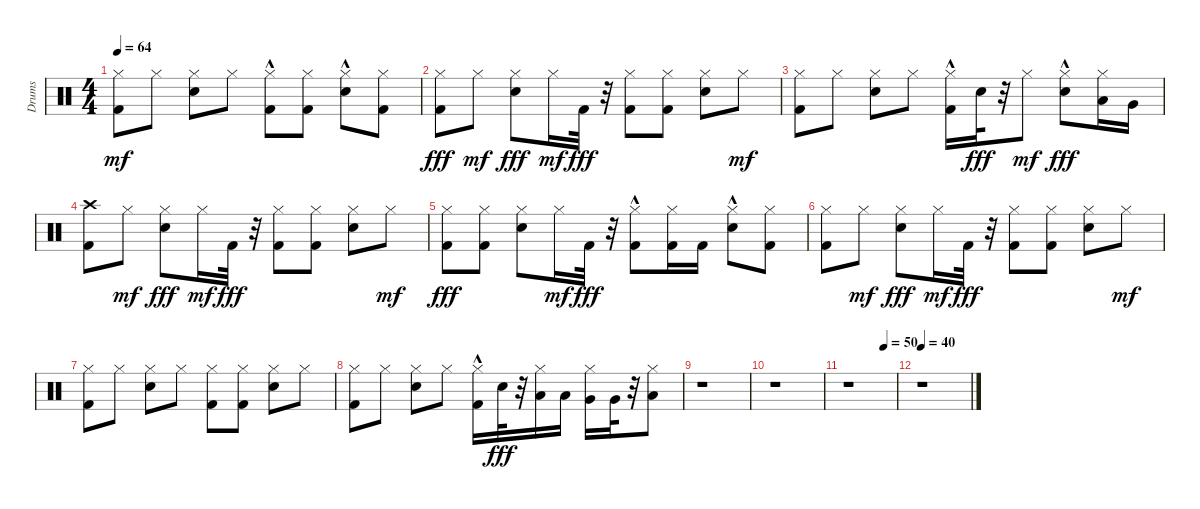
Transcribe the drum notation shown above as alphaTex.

\track ("Drums" "Drums") {instrument percussion}
\staff {score}
\articulation defaults
\ts (4 4)
\tempo 64
\clef neutral
\ks c
("Kick (hit) 2" "Hi-Hat (closed)").8{dy mf} "Hi-Hat (closed)".8 ("Snare (hit) 2" "Hi-Hat (closed)").8 "Hi-Hat (closed)".8 ("Kick (hit) 2"{hac} "Hi-Hat (closed)").8 ("Kick (hit) 2" "Hi-Hat (closed)").8 ("Snare (hit) 2"{hac} "Hi-Hat (closed)").8 ("Kick (hit) 2" "Hi-Hat (closed)").8 |
("Hi-Hat (closed)" "Kick (hit) 2").8{dy fff} "Hi-Hat (closed)".8{dy mf} ("Hi-Hat (closed)" "Snare (hit) 2").8{dy fff} "Hi-Hat (closed)".16{dy mf} "Kick (hit) 2".32{dy fff} r.32 ("Hi-Hat (closed)" "Kick (hit) 2").8 ("Hi-Hat (closed)" "Kick (hit) 2").8 ("Hi-Hat (closed)" "Snare (hit) 2").8 "Hi-Hat (closed)".8{dy mf} |
("Kick (hit) 2" "Hi-Hat (closed)").8 "Hi-Hat (closed)".8 ("Snare (hit) 2" "Hi-Hat (closed)").8 "Hi-Hat (closed)".8 ("Kick (hit) 2"{hac} "Hi-Hat (closed)").16 "Snare (hit) 2".32{dy fff} r.32 "Hi-Hat (closed)".8{dy mf} ("Hi-Hat (closed)" "Snare (hit) 2"{hac}).8{dy fff} ("Hi-Hat (closed)" "Low Tom (hit)").16 "Very Low Tom (hit)".16 |
("Crash high (hit)" "Kick (hit) 2").8 "Hi-Hat (closed)".8{dy mf} ("Hi-Hat (closed)" "Snare (hit) 2").8{dy fff} "Hi-Hat (closed)".16{dy mf} "Kick (hit) 2".32{dy fff} r.32 ("Hi-Hat (closed)" "Kick (hit) 2").8 ("Hi-Hat (closed)" "Kick (hit) 2").8 ("Hi-Hat (closed)" "Snare (hit) 2").8 "Hi-Hat (closed)".8{dy mf} |
("Hi-Hat (closed)" "Kick (hit) 2").8{dy fff} ("Hi-Hat (closed)" "Kick (hit) 2").8 ("Hi-Hat (closed)" "Snare (hit) 2").8 "Hi-Hat (closed)".16{dy mf} "Kick (hit) 2".32{dy fff} r.32 ("Hi-Hat (closed)" "Kick (hit) 2"{hac}).8 ("Hi-Hat (closed)" "Kick (hit) 2").16 "Kick (hit) 2".16 ("Hi-Hat (closed)" "Snare (hit) 2"{hac}).8 ("Hi-Hat (closed)" "Kick (hit) 2").8 |
("Hi-Hat (closed)" "Kick (hit) 2").8 "Hi-Hat (closed)".8{dy mf} ("Hi-Hat (closed)" "Snare (hit) 2").8{dy fff} "Hi-Hat (closed)".16{dy mf} "Kick (hit) 2".32{dy fff} r.32 ("Hi-Hat (closed)" "Kick (hit) 2").8 ("Hi-Hat (closed)" "Kick (hit) 2").8 ("Hi-Hat (closed)" "Snare (hit) 2").8 "Hi-Hat (closed)".8{dy mf} |
("Kick (hit) 2" "Hi-Hat (closed)").8 "Hi-Hat (closed)".8 ("Snare (hit) 2" "Hi-Hat (closed)").8 "Hi-Hat (closed)".8 ("Kick (hit) 2" "Hi-Hat (closed)").8 ("Kick (hit) 2" "Hi-Hat (closed)").8 ("Snare (hit) 2" "Hi-Hat (closed)").8 "Hi-Hat (closed)".8 |
("Kick (hit) 2" "Hi-Hat (closed)").8 "Hi-Hat (closed)".8 ("Snare (hit) 2" "Hi-Hat (closed)").8 "Hi-Hat (closed)".8 ("Kick (hit) 2"{hac} "Hi-Hat (closed)").16 "Snare (hit) 2".32{dy fff} r.32 ("Hi-Hat (closed)" "Low Tom (hit)").16 "Low Tom (hit)".16 ("Hi-Hat (closed)" "Very Low Tom (hit)").16 "Very Low Tom (hit)".32 r.32 ("Hi-Hat (closed)" "Low Floor Tom (hit)").8 |
r.1 |
r.1 |
\tempo (50 0.75)
r.1 |
\tempo 40
r.1
